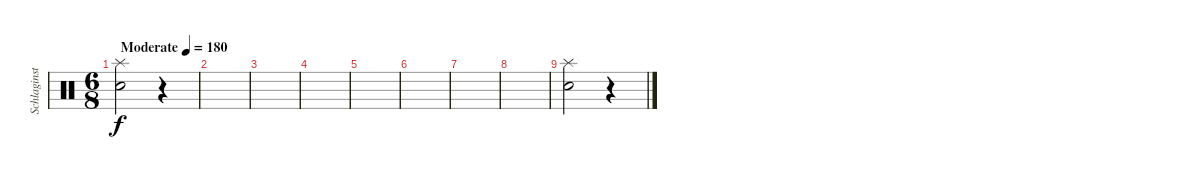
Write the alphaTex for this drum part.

\track ("Schlaginstrumente - Auswahl" "Schlaginst") {instrument percussion}
\staff {score}
\articulation defaults
\ts (6 8)
\tempo (180 "Moderate")
\clef neutral
\ks c
("Splash (hit)" "Snare (hit) 2").2{dy f} r.4 |
|
|
|
|
|
|
|
("Splash (hit)" "Snare (hit) 2").2 r.4
